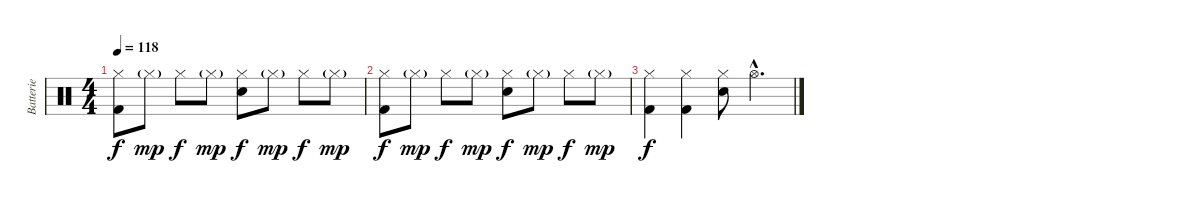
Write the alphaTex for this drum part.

\track ("Batterie" "Batterie") {instrument percussion}
\staff {score}
\articulation defaults
\ts (4 4)
\tempo 118
\clef neutral
\ks c
("Hi-Hat (closed)" "Kick (hit) 2").8{dy f} "Hi-Hat (closed)"{g}.8{dy mp} "Hi-Hat (closed)".8{dy f} "Hi-Hat (closed)"{g}.8{dy mp} ("Hi-Hat (closed)" "Electric Snare (hit)").8{dy f} "Hi-Hat (closed)"{g}.8{dy mp} "Hi-Hat (closed)".8{dy f} "Hi-Hat (closed)"{g}.8{dy mp} |
("Hi-Hat (closed)" "Kick (hit) 2").8{dy f} "Hi-Hat (closed)"{g}.8{dy mp} "Hi-Hat (closed)".8{dy f} "Hi-Hat (closed)"{g}.8{dy mp} ("Hi-Hat (closed)" "Electric Snare (hit)").8{dy f} "Hi-Hat (closed)"{g}.8{dy mp} "Hi-Hat (closed)".8{dy f} "Hi-Hat (closed)"{g}.8{dy mp} |
("Hi-Hat (closed)" "Kick (hit) 2").4{dy f} ("Hi-Hat (closed)" "Kick (hit) 2").4 ("Hi-Hat (closed)" "Electric Snare (hit)").8 "Hi-Hat (open)"{hac}.4{d}
